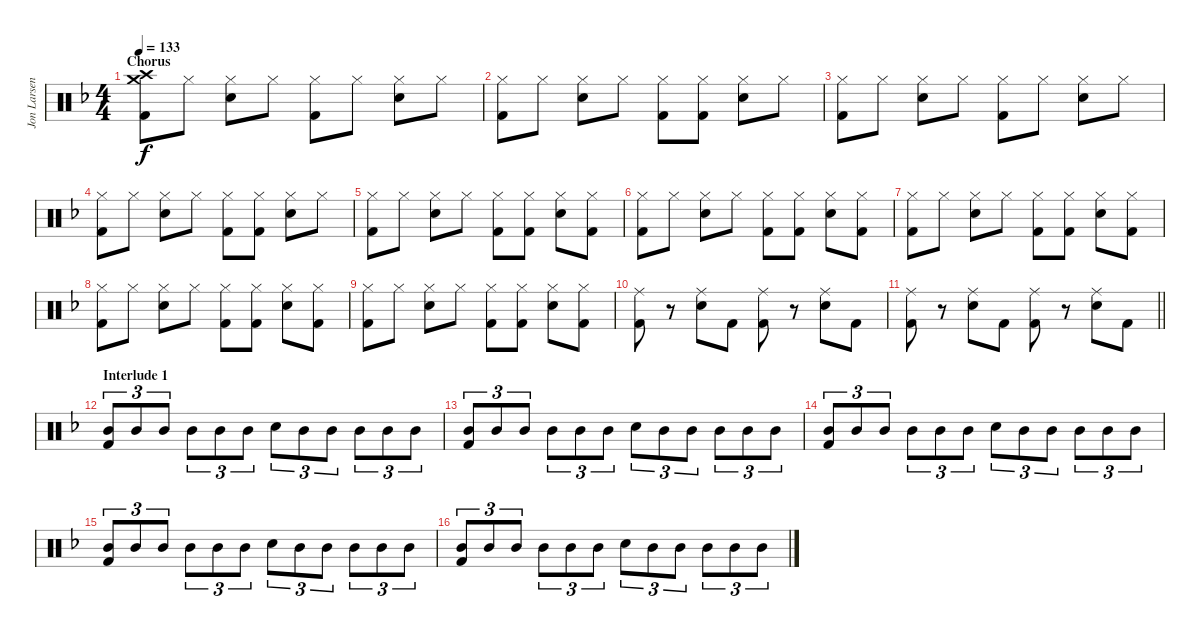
\track ("Jon Larsen" "Jon Larsen") {instrument percussion}
\staff {score}
\articulation defaults
\ts (4 4)
\section ("" "Chorus")
\tempo 133
\clef neutral
\ks f
("Crash medium (hit)" "Crash high (hit)" "Kick (hit) 2").8{dy f} "Hi-Hat (closed)".8 ("Hi-Hat (closed)" "Electric Snare (hit)").8 "Hi-Hat (closed)".8 ("Hi-Hat (closed)" "Kick (hit) 2").8 "Hi-Hat (closed)".8 ("Hi-Hat (closed)" "Electric Snare (hit)").8 "Hi-Hat (closed)".8 |
("Hi-Hat (closed)" "Kick (hit) 2").8 "Hi-Hat (closed)".8 ("Hi-Hat (closed)" "Electric Snare (hit)").8 "Hi-Hat (closed)".8 ("Hi-Hat (closed)" "Kick (hit) 2").8 ("Hi-Hat (closed)" "Kick (hit) 2").8 ("Hi-Hat (closed)" "Electric Snare (hit)").8 "Hi-Hat (closed)".8 |
("Hi-Hat (closed)" "Kick (hit) 2").8 "Hi-Hat (closed)".8 ("Hi-Hat (closed)" "Electric Snare (hit)").8 "Hi-Hat (closed)".8 ("Hi-Hat (closed)" "Kick (hit) 2").8 "Hi-Hat (closed)".8 ("Hi-Hat (closed)" "Electric Snare (hit)").8 "Hi-Hat (closed)".8 |
("Hi-Hat (closed)" "Kick (hit) 2").8 "Hi-Hat (closed)".8 ("Hi-Hat (closed)" "Electric Snare (hit)").8 "Hi-Hat (closed)".8 ("Hi-Hat (closed)" "Kick (hit) 2").8 ("Hi-Hat (closed)" "Kick (hit) 2").8 ("Hi-Hat (closed)" "Electric Snare (hit)").8 "Hi-Hat (closed)".8 |
("Hi-Hat (closed)" "Kick (hit) 2").8 "Hi-Hat (closed)".8 ("Hi-Hat (closed)" "Electric Snare (hit)").8 "Hi-Hat (closed)".8 ("Hi-Hat (closed)" "Kick (hit) 2").8 ("Hi-Hat (closed)" "Kick (hit) 2").8 ("Hi-Hat (closed)" "Electric Snare (hit)").8 ("Hi-Hat (closed)" "Kick (hit) 2").8 |
("Hi-Hat (closed)" "Kick (hit) 2").8 "Hi-Hat (closed)".8 ("Hi-Hat (closed)" "Electric Snare (hit)").8 "Hi-Hat (closed)".8 ("Hi-Hat (closed)" "Kick (hit) 2").8 ("Hi-Hat (closed)" "Kick (hit) 2").8 ("Hi-Hat (closed)" "Electric Snare (hit)").8 ("Hi-Hat (closed)" "Kick (hit) 2").8 |
("Hi-Hat (closed)" "Kick (hit) 2").8 "Hi-Hat (closed)".8 ("Hi-Hat (closed)" "Electric Snare (hit)").8 "Hi-Hat (closed)".8 ("Hi-Hat (closed)" "Kick (hit) 2").8 ("Hi-Hat (closed)" "Kick (hit) 2").8 ("Hi-Hat (closed)" "Electric Snare (hit)").8 ("Hi-Hat (closed)" "Kick (hit) 2").8 |
("Hi-Hat (closed)" "Kick (hit) 2").8 "Hi-Hat (closed)".8 ("Hi-Hat (closed)" "Electric Snare (hit)").8 "Hi-Hat (closed)".8 ("Hi-Hat (closed)" "Kick (hit) 2").8 ("Hi-Hat (closed)" "Kick (hit) 2").8 ("Hi-Hat (closed)" "Electric Snare (hit)").8 ("Hi-Hat (closed)" "Kick (hit) 2").8 |
("Hi-Hat (closed)" "Kick (hit) 2").8 "Hi-Hat (closed)".8 ("Hi-Hat (closed)" "Electric Snare (hit)").8 "Hi-Hat (closed)".8 ("Hi-Hat (closed)" "Kick (hit) 2").8 ("Hi-Hat (closed)" "Kick (hit) 2").8 ("Hi-Hat (closed)" "Electric Snare (hit)").8 ("Hi-Hat (closed)" "Kick (hit) 2").8 |
("Ride (middle)" "Kick (hit) 2").8 r.8 ("Ride (middle)" "Electric Snare (hit)").8 "Kick (hit) 2".8 ("Ride (middle)" "Kick (hit) 2").8 r.8 ("Ride (middle)" "Electric Snare (hit)").8 "Kick (hit) 2".8 |
\barLineRight lightlight
("Ride (middle)" "Kick (hit) 2").8 r.8 ("Ride (middle)" "Electric Snare (hit)").8 "Kick (hit) 2".8 ("Ride (middle)" "Kick (hit) 2").8 r.8 ("Ride (middle)" "Electric Snare (hit)").8 "Kick (hit) 2".8 |
\section ("" "Interlude 1")
("Mid Tom (hit)" "Kick (hit) 2").8{tu (3 2)} "Mid Tom (hit)".8{tu (3 2)} "Mid Tom (hit)".8{tu (3 2)} "Mid Tom (hit)".8{tu (3 2)} "Mid Tom (hit)".8{tu (3 2)} "Mid Tom (hit)".8{tu (3 2)} "Electric Snare (hit)".8{tu (3 2)} "Mid Tom (hit)".8{tu (3 2)} "Mid Tom (hit)".8{tu (3 2)} "Mid Tom (hit)".8{tu (3 2)} "Mid Tom (hit)".8{tu (3 2)} "Mid Tom (hit)".8{tu (3 2)} |
("Mid Tom (hit)" "Kick (hit) 2").8{tu (3 2)} "Mid Tom (hit)".8{tu (3 2)} "Mid Tom (hit)".8{tu (3 2)} "Mid Tom (hit)".8{tu (3 2)} "Mid Tom (hit)".8{tu (3 2)} "Mid Tom (hit)".8{tu (3 2)} "Electric Snare (hit)".8{tu (3 2)} "Mid Tom (hit)".8{tu (3 2)} "Mid Tom (hit)".8{tu (3 2)} "Mid Tom (hit)".8{tu (3 2)} "Mid Tom (hit)".8{tu (3 2)} "Mid Tom (hit)".8{tu (3 2)} |
("Mid Tom (hit)" "Kick (hit) 2").8{tu (3 2)} "Mid Tom (hit)".8{tu (3 2)} "Mid Tom (hit)".8{tu (3 2)} "Mid Tom (hit)".8{tu (3 2)} "Mid Tom (hit)".8{tu (3 2)} "Mid Tom (hit)".8{tu (3 2)} "Electric Snare (hit)".8{tu (3 2)} "Mid Tom (hit)".8{tu (3 2)} "Mid Tom (hit)".8{tu (3 2)} "Mid Tom (hit)".8{tu (3 2)} "Mid Tom (hit)".8{tu (3 2)} "Mid Tom (hit)".8{tu (3 2)} |
("Mid Tom (hit)" "Kick (hit) 2").8{tu (3 2)} "Mid Tom (hit)".8{tu (3 2)} "Mid Tom (hit)".8{tu (3 2)} "Mid Tom (hit)".8{tu (3 2)} "Mid Tom (hit)".8{tu (3 2)} "Mid Tom (hit)".8{tu (3 2)} "Electric Snare (hit)".8{tu (3 2)} "Mid Tom (hit)".8{tu (3 2)} "Mid Tom (hit)".8{tu (3 2)} "Mid Tom (hit)".8{tu (3 2)} "Mid Tom (hit)".8{tu (3 2)} "Mid Tom (hit)".8{tu (3 2)} |
("Mid Tom (hit)" "Kick (hit) 2").8{tu (3 2)} "Mid Tom (hit)".8{tu (3 2)} "Mid Tom (hit)".8{tu (3 2)} "Mid Tom (hit)".8{tu (3 2)} "Mid Tom (hit)".8{tu (3 2)} "Mid Tom (hit)".8{tu (3 2)} "Electric Snare (hit)".8{tu (3 2)} "Mid Tom (hit)".8{tu (3 2)} "Mid Tom (hit)".8{tu (3 2)} "Mid Tom (hit)".8{tu (3 2)} "Mid Tom (hit)".8{tu (3 2)} "Mid Tom (hit)".8{tu (3 2)}
